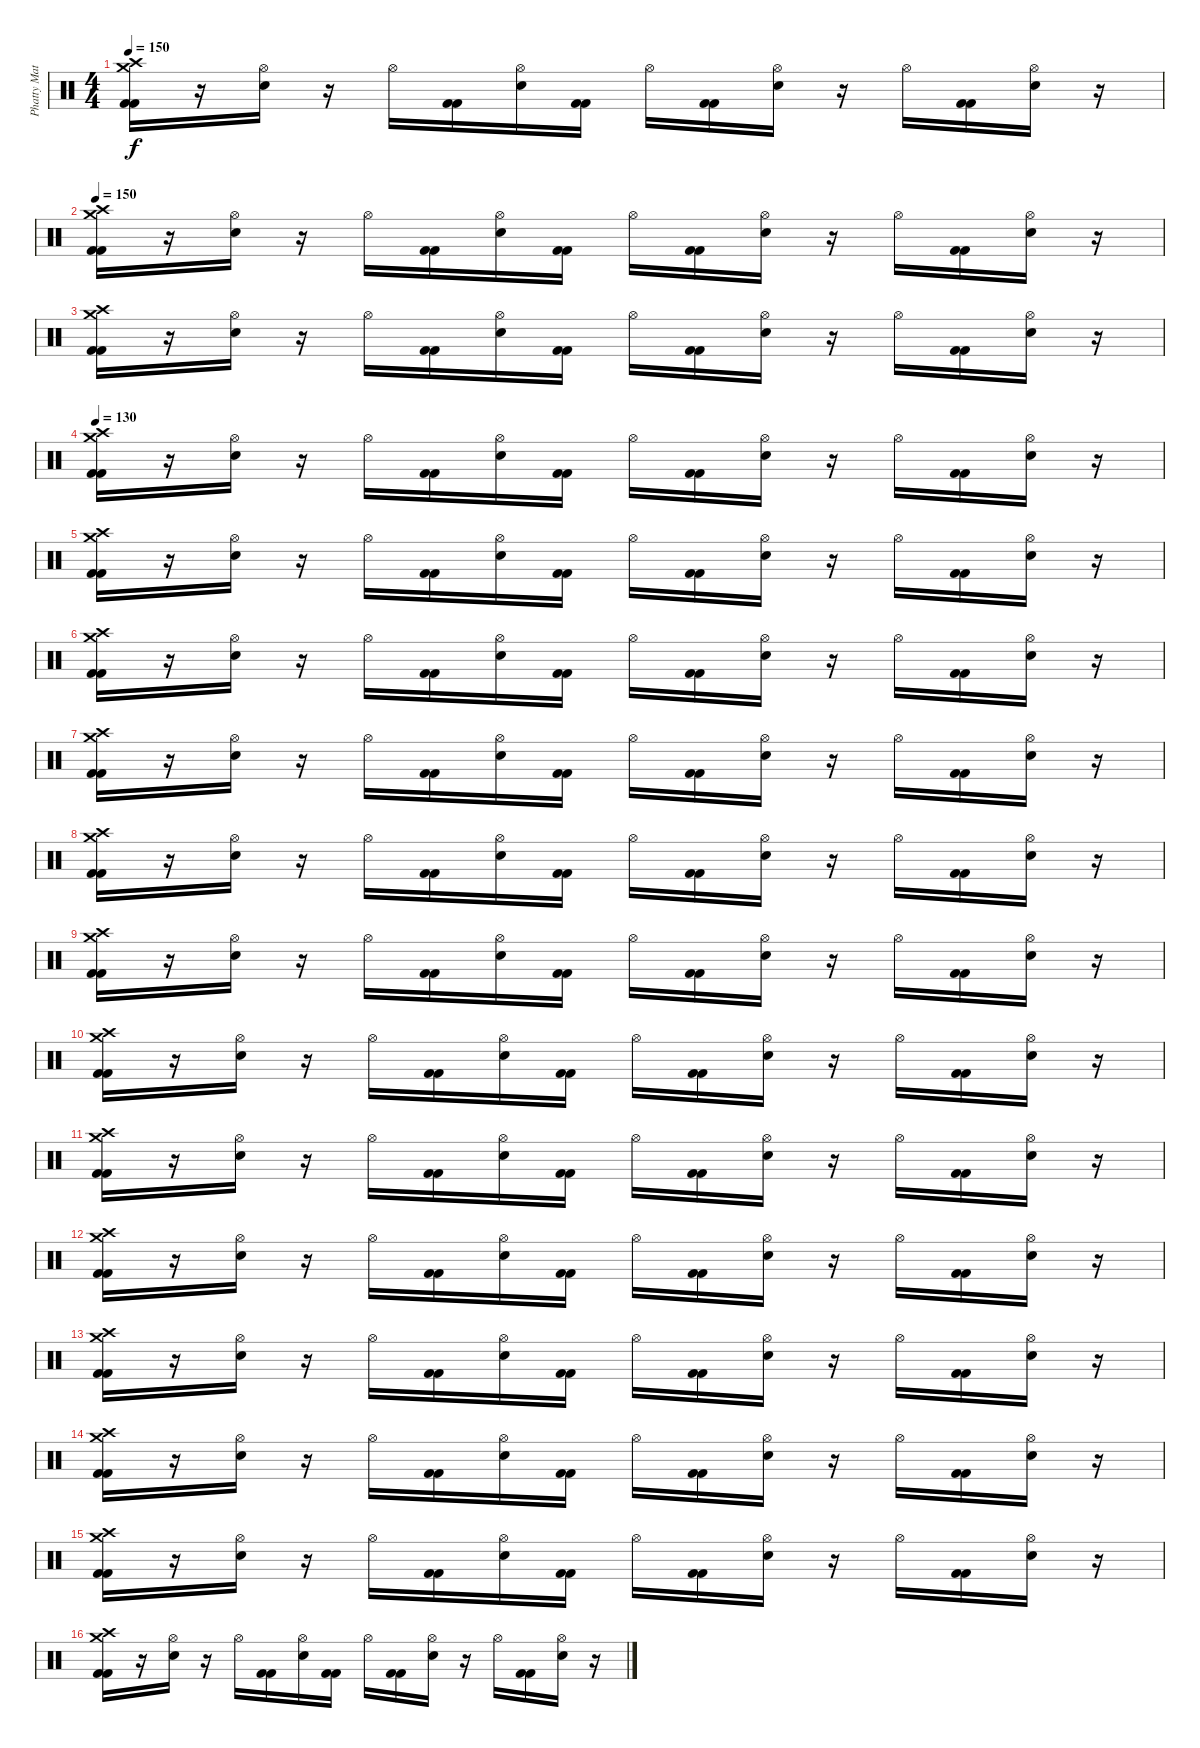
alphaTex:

\track ("Phatty Matty Withrow (Drums)" "Phatty Mat") {instrument percussion}
\staff {score}
\articulation defaults
\ts (4 4)
\tempo 150
\clef neutral
\ks c
("Crash high (hit)" "Crash medium (hit)" "Kick (hit) 2" "Kick (hit) 2").16{dy f} r.16 ("Hi-Hat (open)" "Electric Snare (hit)").16 r.16 "Hi-Hat (open)".16 ("Kick (hit) 2" "Kick (hit) 2").16 ("Hi-Hat (open)" "Electric Snare (hit)").16 ("Kick (hit) 2" "Kick (hit) 2").16 "Hi-Hat (open)".16 ("Kick (hit) 2" "Kick (hit) 2").16 ("Hi-Hat (open)" "Electric Snare (hit)").16 r.16 "Hi-Hat (open)".16 ("Kick (hit) 2" "Kick (hit) 2").16 ("Hi-Hat (open)" "Electric Snare (hit)").16 r.16 |
\tempo 150
("Crash high (hit)" "Crash medium (hit)" "Kick (hit) 2" "Kick (hit) 2").16 r.16 ("Hi-Hat (open)" "Electric Snare (hit)").16 r.16 "Hi-Hat (open)".16 ("Kick (hit) 2" "Kick (hit) 2").16 ("Hi-Hat (open)" "Electric Snare (hit)").16 ("Kick (hit) 2" "Kick (hit) 2").16 "Hi-Hat (open)".16 ("Kick (hit) 2" "Kick (hit) 2").16 ("Hi-Hat (open)" "Electric Snare (hit)").16 r.16 "Hi-Hat (open)".16 ("Kick (hit) 2" "Kick (hit) 2").16 ("Hi-Hat (open)" "Electric Snare (hit)").16 r.16 |
("Crash high (hit)" "Crash medium (hit)" "Kick (hit) 2" "Kick (hit) 2").16 r.16 ("Hi-Hat (open)" "Electric Snare (hit)").16 r.16 "Hi-Hat (open)".16 ("Kick (hit) 2" "Kick (hit) 2").16 ("Hi-Hat (open)" "Electric Snare (hit)").16 ("Kick (hit) 2" "Kick (hit) 2").16 "Hi-Hat (open)".16 ("Kick (hit) 2" "Kick (hit) 2").16 ("Hi-Hat (open)" "Electric Snare (hit)").16 r.16 "Hi-Hat (open)".16 ("Kick (hit) 2" "Kick (hit) 2").16 ("Hi-Hat (open)" "Electric Snare (hit)").16 r.16 |
\tempo 130
("Crash high (hit)" "Crash medium (hit)" "Kick (hit) 2" "Kick (hit) 2").16 r.16 ("Hi-Hat (open)" "Electric Snare (hit)").16 r.16 "Hi-Hat (open)".16 ("Kick (hit) 2" "Kick (hit) 2").16 ("Hi-Hat (open)" "Electric Snare (hit)").16 ("Kick (hit) 2" "Kick (hit) 2").16 "Hi-Hat (open)".16 ("Kick (hit) 2" "Kick (hit) 2").16 ("Hi-Hat (open)" "Electric Snare (hit)").16 r.16 "Hi-Hat (open)".16 ("Kick (hit) 2" "Kick (hit) 2").16 ("Hi-Hat (open)" "Electric Snare (hit)").16 r.16 |
("Crash high (hit)" "Crash medium (hit)" "Kick (hit) 2" "Kick (hit) 2").16 r.16 ("Hi-Hat (open)" "Electric Snare (hit)").16 r.16 "Hi-Hat (open)".16 ("Kick (hit) 2" "Kick (hit) 2").16 ("Hi-Hat (open)" "Electric Snare (hit)").16 ("Kick (hit) 2" "Kick (hit) 2").16 "Hi-Hat (open)".16 ("Kick (hit) 2" "Kick (hit) 2").16 ("Hi-Hat (open)" "Electric Snare (hit)").16 r.16 "Hi-Hat (open)".16 ("Kick (hit) 2" "Kick (hit) 2").16 ("Hi-Hat (open)" "Electric Snare (hit)").16 r.16 |
("Crash high (hit)" "Crash medium (hit)" "Kick (hit) 2" "Kick (hit) 2").16 r.16 ("Hi-Hat (open)" "Electric Snare (hit)").16 r.16 "Hi-Hat (open)".16 ("Kick (hit) 2" "Kick (hit) 2").16 ("Hi-Hat (open)" "Electric Snare (hit)").16 ("Kick (hit) 2" "Kick (hit) 2").16 "Hi-Hat (open)".16 ("Kick (hit) 2" "Kick (hit) 2").16 ("Hi-Hat (open)" "Electric Snare (hit)").16 r.16 "Hi-Hat (open)".16 ("Kick (hit) 2" "Kick (hit) 2").16 ("Hi-Hat (open)" "Electric Snare (hit)").16 r.16 |
("Crash high (hit)" "Crash medium (hit)" "Kick (hit) 2" "Kick (hit) 2").16 r.16 ("Hi-Hat (open)" "Electric Snare (hit)").16 r.16 "Hi-Hat (open)".16 ("Kick (hit) 2" "Kick (hit) 2").16 ("Hi-Hat (open)" "Electric Snare (hit)").16 ("Kick (hit) 2" "Kick (hit) 2").16 "Hi-Hat (open)".16 ("Kick (hit) 2" "Kick (hit) 2").16 ("Hi-Hat (open)" "Electric Snare (hit)").16 r.16 "Hi-Hat (open)".16 ("Kick (hit) 2" "Kick (hit) 2").16 ("Hi-Hat (open)" "Electric Snare (hit)").16 r.16 |
("Crash high (hit)" "Crash medium (hit)" "Kick (hit) 2" "Kick (hit) 2").16 r.16 ("Hi-Hat (open)" "Electric Snare (hit)").16 r.16 "Hi-Hat (open)".16 ("Kick (hit) 2" "Kick (hit) 2").16 ("Hi-Hat (open)" "Electric Snare (hit)").16 ("Kick (hit) 2" "Kick (hit) 2").16 "Hi-Hat (open)".16 ("Kick (hit) 2" "Kick (hit) 2").16 ("Hi-Hat (open)" "Electric Snare (hit)").16 r.16 "Hi-Hat (open)".16 ("Kick (hit) 2" "Kick (hit) 2").16 ("Hi-Hat (open)" "Electric Snare (hit)").16 r.16 |
("Crash high (hit)" "Crash medium (hit)" "Kick (hit) 2" "Kick (hit) 2").16 r.16 ("Hi-Hat (open)" "Electric Snare (hit)").16 r.16 "Hi-Hat (open)".16 ("Kick (hit) 2" "Kick (hit) 2").16 ("Hi-Hat (open)" "Electric Snare (hit)").16 ("Kick (hit) 2" "Kick (hit) 2").16 "Hi-Hat (open)".16 ("Kick (hit) 2" "Kick (hit) 2").16 ("Hi-Hat (open)" "Electric Snare (hit)").16 r.16 "Hi-Hat (open)".16 ("Kick (hit) 2" "Kick (hit) 2").16 ("Hi-Hat (open)" "Electric Snare (hit)").16 r.16 |
("Crash high (hit)" "Crash medium (hit)" "Kick (hit) 2" "Kick (hit) 2").16 r.16 ("Hi-Hat (open)" "Electric Snare (hit)").16 r.16 "Hi-Hat (open)".16 ("Kick (hit) 2" "Kick (hit) 2").16 ("Hi-Hat (open)" "Electric Snare (hit)").16 ("Kick (hit) 2" "Kick (hit) 2").16 "Hi-Hat (open)".16 ("Kick (hit) 2" "Kick (hit) 2").16 ("Hi-Hat (open)" "Electric Snare (hit)").16 r.16 "Hi-Hat (open)".16 ("Kick (hit) 2" "Kick (hit) 2").16 ("Hi-Hat (open)" "Electric Snare (hit)").16 r.16 |
("Crash high (hit)" "Crash medium (hit)" "Kick (hit) 2" "Kick (hit) 2").16 r.16 ("Hi-Hat (open)" "Electric Snare (hit)").16 r.16 "Hi-Hat (open)".16 ("Kick (hit) 2" "Kick (hit) 2").16 ("Hi-Hat (open)" "Electric Snare (hit)").16 ("Kick (hit) 2" "Kick (hit) 2").16 "Hi-Hat (open)".16 ("Kick (hit) 2" "Kick (hit) 2").16 ("Hi-Hat (open)" "Electric Snare (hit)").16 r.16 "Hi-Hat (open)".16 ("Kick (hit) 2" "Kick (hit) 2").16 ("Hi-Hat (open)" "Electric Snare (hit)").16 r.16 |
("Crash high (hit)" "Crash medium (hit)" "Kick (hit) 2" "Kick (hit) 2").16 r.16 ("Hi-Hat (open)" "Electric Snare (hit)").16 r.16 "Hi-Hat (open)".16 ("Kick (hit) 2" "Kick (hit) 2").16 ("Hi-Hat (open)" "Electric Snare (hit)").16 ("Kick (hit) 2" "Kick (hit) 2").16 "Hi-Hat (open)".16 ("Kick (hit) 2" "Kick (hit) 2").16 ("Hi-Hat (open)" "Electric Snare (hit)").16 r.16 "Hi-Hat (open)".16 ("Kick (hit) 2" "Kick (hit) 2").16 ("Hi-Hat (open)" "Electric Snare (hit)").16 r.16 |
("Crash high (hit)" "Crash medium (hit)" "Kick (hit) 2" "Kick (hit) 2").16 r.16 ("Hi-Hat (open)" "Electric Snare (hit)").16 r.16 "Hi-Hat (open)".16 ("Kick (hit) 2" "Kick (hit) 2").16 ("Hi-Hat (open)" "Electric Snare (hit)").16 ("Kick (hit) 2" "Kick (hit) 2").16 "Hi-Hat (open)".16 ("Kick (hit) 2" "Kick (hit) 2").16 ("Hi-Hat (open)" "Electric Snare (hit)").16 r.16 "Hi-Hat (open)".16 ("Kick (hit) 2" "Kick (hit) 2").16 ("Hi-Hat (open)" "Electric Snare (hit)").16 r.16 |
("Crash high (hit)" "Crash medium (hit)" "Kick (hit) 2" "Kick (hit) 2").16 r.16 ("Hi-Hat (open)" "Electric Snare (hit)").16 r.16 "Hi-Hat (open)".16 ("Kick (hit) 2" "Kick (hit) 2").16 ("Hi-Hat (open)" "Electric Snare (hit)").16 ("Kick (hit) 2" "Kick (hit) 2").16 "Hi-Hat (open)".16 ("Kick (hit) 2" "Kick (hit) 2").16 ("Hi-Hat (open)" "Electric Snare (hit)").16 r.16 "Hi-Hat (open)".16 ("Kick (hit) 2" "Kick (hit) 2").16 ("Hi-Hat (open)" "Electric Snare (hit)").16 r.16 |
("Crash high (hit)" "Crash medium (hit)" "Kick (hit) 2" "Kick (hit) 2").16 r.16 ("Hi-Hat (open)" "Electric Snare (hit)").16 r.16 "Hi-Hat (open)".16 ("Kick (hit) 2" "Kick (hit) 2").16 ("Hi-Hat (open)" "Electric Snare (hit)").16 ("Kick (hit) 2" "Kick (hit) 2").16 "Hi-Hat (open)".16 ("Kick (hit) 2" "Kick (hit) 2").16 ("Hi-Hat (open)" "Electric Snare (hit)").16 r.16 "Hi-Hat (open)".16 ("Kick (hit) 2" "Kick (hit) 2").16 ("Hi-Hat (open)" "Electric Snare (hit)").16 r.16 |
("Crash high (hit)" "Crash medium (hit)" "Kick (hit) 2" "Kick (hit) 2").16 r.16 ("Hi-Hat (open)" "Electric Snare (hit)").16 r.16 "Hi-Hat (open)".16 ("Kick (hit) 2" "Kick (hit) 2").16 ("Hi-Hat (open)" "Electric Snare (hit)").16 ("Kick (hit) 2" "Kick (hit) 2").16 "Hi-Hat (open)".16 ("Kick (hit) 2" "Kick (hit) 2").16 ("Hi-Hat (open)" "Electric Snare (hit)").16 r.16 "Hi-Hat (open)".16 ("Kick (hit) 2" "Kick (hit) 2").16 ("Hi-Hat (open)" "Electric Snare (hit)").16 r.16
